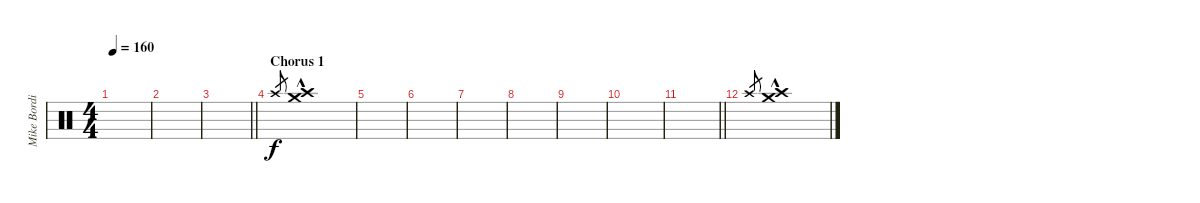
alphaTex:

\track ("Mike Bordin - Percussion Crash" "Mike Bordi") {instrument percussion}
\staff {score}
\articulation defaults
\ts (4 4)
\tempo 160
\clef neutral
\ks c
|
|
\barLineRight lightlight
|
\section ("" "Chorus 1")
"Crash high (hit)".8{gr} ("Crash high (hit)"{hac} "Crash medium (hit)").1{volume 16} |
|
|
|
|
|
|
\barLineRight lightlight
|
\section ("" "")
"Crash high (hit)".8{gr} ("Crash high (hit)"{hac} "Crash medium (hit)").1{volume 16}
